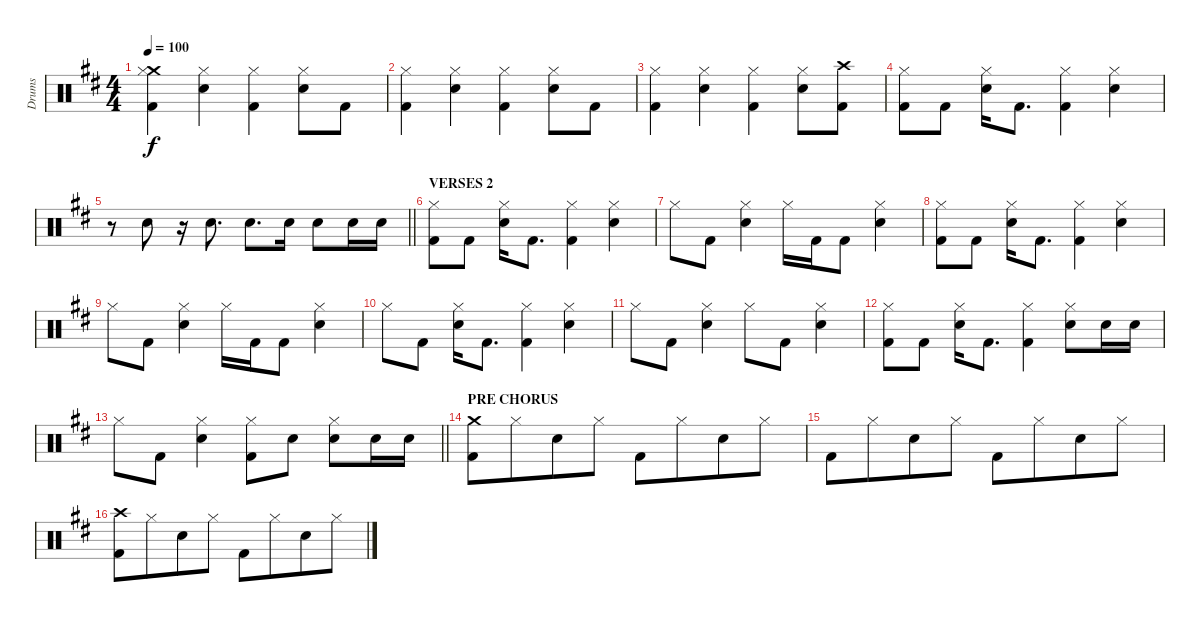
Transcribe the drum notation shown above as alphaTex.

\track ("Drums" "Drums") {instrument percussion}
\staff {score}
\articulation defaults
\ts (4 4)
\tempo 100
\clef neutral
\ks d
("Crash medium (hit)" "Hi-Hat (closed)" "Kick (hit) 2").4{dy f beam merge} ("Hi-Hat (closed)" "Electric Snare (hit)").4 ("Hi-Hat (closed)" "Kick (hit) 2").4{beam merge} ("Hi-Hat (closed)" "Electric Snare (hit)").8 "Kick (hit) 2".8 |
("Hi-Hat (closed)" "Kick (hit) 2").4{beam merge} ("Hi-Hat (closed)" "Electric Snare (hit)").4 ("Hi-Hat (closed)" "Kick (hit) 2").4{beam merge} ("Hi-Hat (closed)" "Electric Snare (hit)").8 "Kick (hit) 2".8 |
("Hi-Hat (closed)" "Kick (hit) 2").4{beam merge} ("Hi-Hat (closed)" "Electric Snare (hit)").4 ("Hi-Hat (closed)" "Kick (hit) 2").4{beam merge} ("Hi-Hat (closed)" "Electric Snare (hit)").8 ("Crash high (hit)" "Kick (hit) 2").8 |
("Hi-Hat (closed)" "Kick (hit) 2").8 "Kick (hit) 2".8 ("Hi-Hat (closed)" "Electric Snare (hit)").16 "Kick (hit) 2".8{d} ("Hi-Hat (closed)" "Kick (hit) 2").4 ("Hi-Hat (closed)" "Electric Snare (hit)").4 |
\barLineRight lightlight
r.8 "Electric Snare (hit)".8 r.16 "Electric Snare (hit)".8{d} "Electric Snare (hit)".8{d} "Electric Snare (hit)".16 "Electric Snare (hit)".8 "Electric Snare (hit)".16 "Electric Snare (hit)".16 |
\section ("" "VERSES 2")
("Hi-Hat (closed)" "Kick (hit) 2").8 "Kick (hit) 2".8 ("Hi-Hat (closed)" "Electric Snare (hit)").16 "Kick (hit) 2".8{d} ("Hi-Hat (closed)" "Kick (hit) 2").4 ("Hi-Hat (closed)" "Electric Snare (hit)").4 |
"Hi-Hat (closed)".8 "Kick (hit) 2".8 ("Hi-Hat (closed)" "Electric Snare (hit)").4 "Hi-Hat (closed)".16 "Kick (hit) 2".16 "Kick (hit) 2".8 ("Hi-Hat (closed)" "Electric Snare (hit)").4 |
("Hi-Hat (closed)" "Kick (hit) 2").8 "Kick (hit) 2".8 ("Hi-Hat (closed)" "Electric Snare (hit)").16 "Kick (hit) 2".8{d} ("Hi-Hat (closed)" "Kick (hit) 2").4 ("Hi-Hat (closed)" "Electric Snare (hit)").4 |
"Hi-Hat (closed)".8 "Kick (hit) 2".8 ("Hi-Hat (closed)" "Electric Snare (hit)").4 "Hi-Hat (closed)".16 "Kick (hit) 2".16 "Kick (hit) 2".8 ("Hi-Hat (closed)" "Electric Snare (hit)").4 |
"Hi-Hat (closed)".8 "Kick (hit) 2".8 ("Hi-Hat (closed)" "Electric Snare (hit)").16 "Kick (hit) 2".8{d} ("Hi-Hat (closed)" "Kick (hit) 2").4 ("Hi-Hat (closed)" "Electric Snare (hit)").4 |
"Hi-Hat (closed)".8 "Kick (hit) 2".8 ("Hi-Hat (closed)" "Electric Snare (hit)").4 "Hi-Hat (closed)".8 "Kick (hit) 2".8 ("Hi-Hat (closed)" "Electric Snare (hit)").4 |
("Hi-Hat (closed)" "Kick (hit) 2").8 "Kick (hit) 2".8 ("Hi-Hat (closed)" "Electric Snare (hit)").16 "Kick (hit) 2".8{d} ("Hi-Hat (closed)" "Kick (hit) 2").4 ("Hi-Hat (closed)" "Electric Snare (hit)").8 "Electric Snare (hit)".16 "Electric Snare (hit)".16 |
\barLineRight lightlight "Hi-Hat (closed)".8 "Kick (hit) 2".8
("Hi-Hat (closed)" "Electric Snare (hit)").4 ("Hi-Hat (closed)" "Kick (hit) 2").8 "Electric Snare (hit)".8 ("Hi-Hat (closed)" "Electric Snare (hit)").8 "Electric Snare (hit)".16 "Electric Snare (hit)".16 |
\section ("" "PRE CHORUS")
("Crash medium (hit)" "Kick (hit) 2").8 "Hi-Hat (closed)".8{beam merge} "Electric Snare (hit)".8 "Hi-Hat (closed)".8 "Kick (hit) 2".8 "Hi-Hat (closed)".8{beam merge} "Electric Snare (hit)".8 "Hi-Hat (closed)".8 |
"Kick (hit) 2".8 "Hi-Hat (closed)".8{beam merge} "Electric Snare (hit)".8 "Hi-Hat (closed)".8 "Kick (hit) 2".8 "Hi-Hat (closed)".8{beam merge} "Electric Snare (hit)".8 "Hi-Hat (closed)".8 |
("Crash high (hit)" "Kick (hit) 2").8 "Hi-Hat (closed)".8{beam merge} "Electric Snare (hit)".8 "Hi-Hat (closed)".8 "Kick (hit) 2".8 "Hi-Hat (closed)".8{beam merge} "Electric Snare (hit)".8 "Hi-Hat (closed)".8
